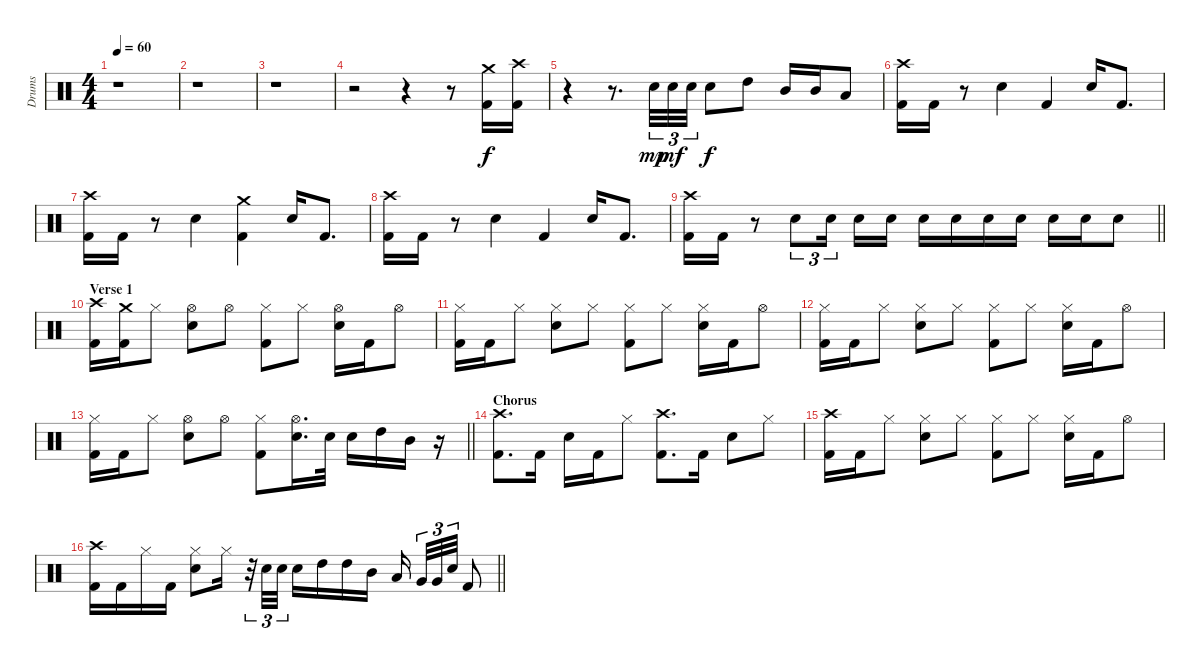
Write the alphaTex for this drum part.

\track ("Drums " "Drums ") {instrument percussion}
\staff {score}
\articulation defaults
\ts (4 4)
\tempo 60
\clef neutral
\ks aminor
r.1{dy f} |
r.1 |
r.1 |
r.2 r.4 r.8 ("Crash medium (hit)" "Kick (hit) 2").16 ("Crash high (hit)" "Kick (hit) 2").16 |
r.4 r.8{d} "Snare (hit) 2".32{tu (3 2) dy mp} "Snare (hit) 2".32{tu (3 2) dy mf} "Snare (hit) 2".32{tu (3 2)} "Snare (hit) 2".8{dy f} "High Tom (hit)".8 "Mid Tom (hit)".16 "Mid Tom (hit)".16 "Low Tom (hit)".8 |
("Crash high (hit)" "Kick (hit) 2").16 "Kick (hit) 2".16 r.8 "Snare (hit) 2".4 "Kick (hit) 2".4 "Snare (hit) 2".16 "Kick (hit) 2".8{d} |
("Crash high (hit)" "Kick (hit) 2").16 "Kick (hit) 2".16 r.8 "Snare (hit) 2".4 ("Crash medium (hit)" "Kick (hit) 2").4 "Snare (hit) 2".16 "Kick (hit) 2".8{d} |
("Crash high (hit)" "Kick (hit) 2").16 "Kick (hit) 2".16 r.8 "Snare (hit) 2".4 "Kick (hit) 2".4 "Snare (hit) 2".16 "Kick (hit) 2".8{d} |
\barLineRight lightlight
("Crash high (hit)" "Kick (hit) 2").16 "Kick (hit) 2".16 r.8 "Snare (hit) 2".8{tu (3 2)} "Snare (hit) 2".16{tu (3 2)} "Snare (hit) 2".16 "Snare (hit) 2".16 "Snare (hit) 2".16 "Snare (hit) 2".16 "Snare (hit) 2".16 "Snare (hit) 2".16 "Snare (hit) 2".16 "Snare (hit) 2".16 "Snare (hit) 2".8 |
\section ("" "Verse 1")
("Crash high (hit)" "Kick (hit) 2").16 ("Crash medium (hit)" "Kick (hit) 2").16 "Hi-Hat (closed)".8 ("Hi-Hat (open)" "Snare (hit) 2").8 "Hi-Hat (open)".8 ("Hi-Hat (closed)" "Kick (hit) 2").8 "Hi-Hat (closed)".8 ("Hi-Hat (open)" "Snare (hit) 2").16 "Kick (hit) 2".16 "Hi-Hat (open)".8 |
("Hi-Hat (closed)" "Kick (hit) 2").16 "Kick (hit) 2".16 "Hi-Hat (closed)".8 ("Hi-Hat (closed)" "Snare (hit) 2").8 "Hi-Hat (closed)".8 ("Hi-Hat (closed)" "Kick (hit) 2").8 "Hi-Hat (closed)".8 ("Hi-Hat (closed)" "Snare (hit) 2").16 "Kick (hit) 2".16 "Hi-Hat (open)".8 |
("Hi-Hat (closed)" "Kick (hit) 2").16 "Kick (hit) 2".16 "Hi-Hat (closed)".8 ("Hi-Hat (closed)" "Snare (hit) 2").8 "Hi-Hat (closed)".8 ("Hi-Hat (closed)" "Kick (hit) 2").8 "Hi-Hat (closed)".8 ("Hi-Hat (closed)" "Snare (hit) 2").16 "Kick (hit) 2".16 "Hi-Hat (open)".8 |
\barLineRight lightlight
("Hi-Hat (closed)" "Kick (hit) 2").16 "Kick (hit) 2".16 "Hi-Hat (closed)".8 ("Hi-Hat (open)" "Snare (hit) 2").8 "Hi-Hat (open)".8 ("Hi-Hat (closed)" "Kick (hit) 2").8 ("Hi-Hat (open)" "Snare (hit) 2").16{d} "Snare (hit) 2".32 "Snare (hit) 2".16 "High Tom (hit)".16 "Mid Tom (hit)".16 r.16 |
\section ("" "Chorus")
("Crash high (hit)" "Kick (hit) 2").8{d} "Kick (hit) 2".16 "Snare (hit) 2".16 "Kick (hit) 2".16 "Hi-Hat (closed)".8 ("Crash high (hit)" "Kick (hit) 2").8{d} "Kick (hit) 2".16 "Snare (hit) 2".8 "Hi-Hat (closed)".8 |
("Crash high (hit)" "Kick (hit) 2").16 "Kick (hit) 2".16 "Hi-Hat (closed)".8 ("Hi-Hat (closed)" "Snare (hit) 2").8 "Hi-Hat (closed)".8 ("Hi-Hat (closed)" "Kick (hit) 2").8 "Hi-Hat (closed)".8 ("Hi-Hat (closed)" "Snare (hit) 2").16 "Kick (hit) 2".16 "Hi-Hat (open)".8 |
\barLineRight lightlight
("Crash high (hit)" "Kick (hit) 2").16 "Kick (hit) 2".16 "Hi-Hat (closed)".16 "Kick (hit) 2".16 ("Hi-Hat (closed)" "Snare (hit) 2").8 "Hi-Hat (closed)".16 r.32{tu (3 2)} "Snare (hit) 2".32{tu (3 2)} "Snare (hit) 2".32{tu (3 2)} "Snare (hit) 2".16 "High Tom (hit)".16 "High Tom (hit)".16 "Mid Tom (hit)".16 "Low Tom (hit)".16 "Very Low Tom (hit)".32{tu (3 2)} "Very Low Tom (hit)".32{tu (3 2)} "Snare (hit) 2".32{tu (3 2)} "Kick (hit) 2".8
